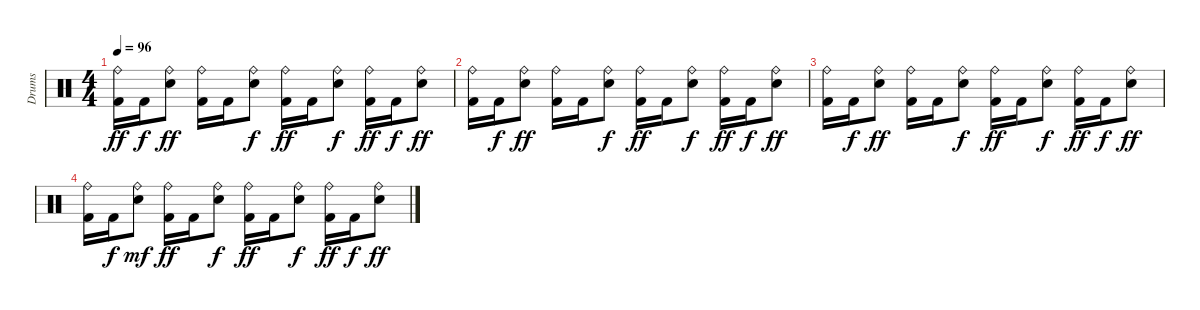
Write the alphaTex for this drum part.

\track ("Drums" "Drums") {instrument percussion}
\staff {score}
\articulation defaults
\ts (4 4)
\tempo 96
\clef neutral
\ks c
("Ride (bell)" "Kick (hit) 2").16{dy ff volume 9} "Kick (hit) 2".16{dy f volume 8} ("Electric Snare (hit)" "Ride (bell)").8{dy ff volume 8} ("Ride (bell)" "Kick (hit) 2").16{volume 8} "Kick (hit) 2".16{volume 8} ("Electric Snare (hit)" "Ride (bell)").8{dy f volume 8} ("Ride (bell)" "Kick (hit) 2").16{dy ff volume 7} "Kick (hit) 2".16{volume 7} ("Electric Snare (hit)" "Ride (bell)").8{dy f volume 7} ("Ride (bell)" "Kick (hit) 2").16{dy ff volume 6} "Kick (hit) 2".16{dy f volume 6} ("Electric Snare (hit)" "Ride (bell)").8{dy ff volume 6} |
("Ride (bell)" "Kick (hit) 2").16{volume 6} "Kick (hit) 2".16{dy f volume 6} ("Electric Snare (hit)" "Ride (bell)").8{dy ff volume 5} ("Ride (bell)" "Kick (hit) 2").16{volume 5} "Kick (hit) 2".16{volume 5} ("Electric Snare (hit)" "Ride (bell)").8{dy f volume 5} ("Ride (bell)" "Kick (hit) 2").16{dy ff volume 5} "Kick (hit) 2".16{volume 4} ("Electric Snare (hit)" "Ride (bell)").8{dy f volume 4} ("Ride (bell)" "Kick (hit) 2").16{dy ff volume 4} "Kick (hit) 2".16{dy f volume 4} ("Electric Snare (hit)" "Ride (bell)").8{dy ff volume 4} |
("Ride (bell)" "Kick (hit) 2").16{volume 4} "Kick (hit) 2".16{dy f volume 4} ("Electric Snare (hit)" "Ride (bell)").8{dy ff volume 3} ("Ride (bell)" "Kick (hit) 2").16{volume 3} "Kick (hit) 2".16{volume 3} ("Electric Snare (hit)" "Ride (bell)").8{dy f volume 3} ("Ride (bell)" "Kick (hit) 2").16{dy ff volume 3} "Kick (hit) 2".16{volume 3} ("Electric Snare (hit)" "Ride (bell)").8{dy f volume 2} ("Ride (bell)" "Kick (hit) 2").16{dy ff volume 2} "Kick (hit) 2".16{dy f volume 2} ("Electric Snare (hit)" "Ride (bell)").8{dy ff volume 2} |
("Ride (bell)" "Kick (hit) 2").16{volume 2} "Kick (hit) 2".16{dy f volume 2} ("Electric Snare (hit)" "Ride (bell)").8{dy mf} ("Ride (bell)" "Kick (hit) 2").16{dy ff volume 2} "Kick (hit) 2".16{volume 1} ("Electric Snare (hit)" "Ride (bell)").8{dy f volume 1} ("Ride (bell)" "Kick (hit) 2").16{dy ff volume 1} "Kick (hit) 2".16{volume 1} ("Electric Snare (hit)" "Ride (bell)").8{dy f volume 1} ("Ride (bell)" "Kick (hit) 2").16{dy ff volume 0} "Kick (hit) 2".16{dy f volume 0} ("Electric Snare (hit)" "Ride (bell)").8{dy ff}
